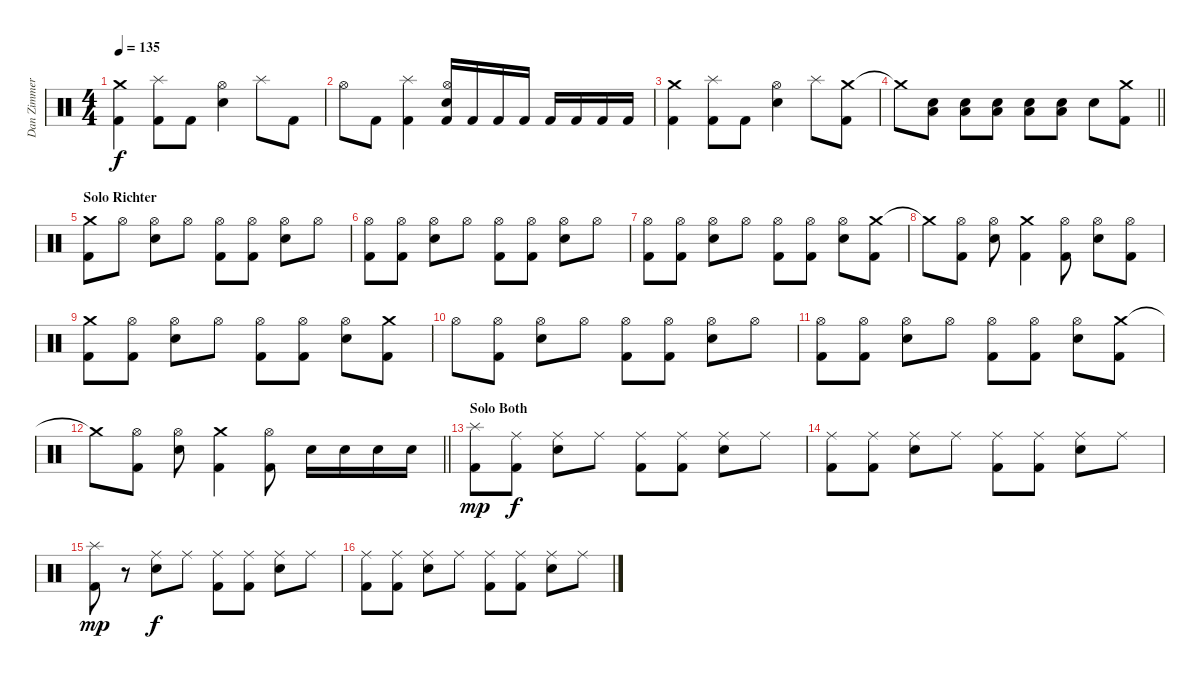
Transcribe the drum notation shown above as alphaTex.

\track ("Dan Zimmermann" "Dan Zimmer") {instrument percussion}
\staff {score}
\articulation defaults
\ts (4 4)
\tempo 135
\clef neutral
\ks c
("Crash medium (hit)" "Kick (hit) 2").4{dy f} ("Splash (hit)" "Kick (hit) 2").8 "Kick (hit) 2".8 ("Hi-Hat (open)" "Electric Snare (hit)").4 "Splash (hit)".8 "Kick (hit) 2".8 |
"Hi-Hat (open)".8 "Kick (hit) 2".8 ("Splash (hit)" "Kick (hit) 2").4 ("Hi-Hat (open)" "Electric Snare (hit)" "Kick (hit) 2").16 "Kick (hit) 2".16 "Kick (hit) 2".16 "Kick (hit) 2".16 "Kick (hit) 2".16 "Kick (hit) 2".16 "Kick (hit) 2".16 "Kick (hit) 2".16 |
("Crash medium (hit)" "Kick (hit) 2").4 ("Splash (hit)" "Kick (hit) 2").8 "Kick (hit) 2".8 ("Hi-Hat (open)" "Electric Snare (hit)").4 "Splash (hit)".8 ("Crash medium (hit)" "Kick (hit) 2").8 |
\barLineRight lightlight "Crash medium (hit)"{t}.8
("Electric Snare (hit)" "Low Floor Tom (hit)").8 ("Electric Snare (hit)" "Low Floor Tom (hit)").8 ("Electric Snare (hit)" "Low Floor Tom (hit)").8 ("Electric Snare (hit)" "Low Floor Tom (hit)").8 ("Electric Snare (hit)" "Low Floor Tom (hit)").8 "Electric Snare (hit)".8 ("Crash medium (hit)" "Kick (hit) 2").8 |
\section ("" "Solo Richter")
("Crash medium (hit)" "Kick (hit) 2").8 "Hi-Hat (open)".8 ("Hi-Hat (open)" "Electric Snare (hit)").8 "Hi-Hat (open)".8 ("Hi-Hat (open)" "Kick (hit) 2").8 ("Hi-Hat (open)" "Kick (hit) 2").8 ("Hi-Hat (open)" "Electric Snare (hit)").8 "Hi-Hat (open)".8 |
("Hi-Hat (open)" "Kick (hit) 2").8 ("Hi-Hat (open)" "Kick (hit) 2").8 ("Hi-Hat (open)" "Electric Snare (hit)").8 "Hi-Hat (open)".8 ("Hi-Hat (open)" "Kick (hit) 2").8 ("Hi-Hat (open)" "Kick (hit) 2").8 ("Hi-Hat (open)" "Electric Snare (hit)").8 "Hi-Hat (open)".8 |
("Hi-Hat (open)" "Kick (hit) 2").8 ("Hi-Hat (open)" "Kick (hit) 2").8 ("Hi-Hat (open)" "Electric Snare (hit)").8 "Hi-Hat (open)".8 ("Hi-Hat (open)" "Kick (hit) 2").8 ("Hi-Hat (open)" "Kick (hit) 2").8 ("Hi-Hat (open)" "Electric Snare (hit)").8 ("Crash medium (hit)" "Kick (hit) 2").8 |
"Crash medium (hit)"{t}.8 ("Hi-Hat (open)" "Kick (hit) 2").8 ("Hi-Hat (open)" "Electric Snare (hit)").8 ("Crash medium (hit)" "Kick (hit) 2").4 ("Hi-Hat (open)" "Kick (hit) 2").8 ("Hi-Hat (open)" "Electric Snare (hit)").8 ("Hi-Hat (open)" "Kick (hit) 2").8 |
("Crash medium (hit)" "Kick (hit) 2").8 ("Hi-Hat (open)" "Kick (hit) 2").8 ("Hi-Hat (open)" "Electric Snare (hit)").8 "Hi-Hat (open)".8 ("Hi-Hat (open)" "Kick (hit) 2").8 ("Hi-Hat (open)" "Kick (hit) 2").8 ("Hi-Hat (open)" "Electric Snare (hit)").8 ("Crash medium (hit)" "Kick (hit) 2").8 |
"Hi-Hat (open)".8 ("Hi-Hat (open)" "Kick (hit) 2").8 ("Hi-Hat (open)" "Electric Snare (hit)").8 "Hi-Hat (open)".8 ("Hi-Hat (open)" "Kick (hit) 2").8 ("Hi-Hat (open)" "Kick (hit) 2").8 ("Hi-Hat (open)" "Electric Snare (hit)").8 "Hi-Hat (open)".8 |
("Hi-Hat (open)" "Kick (hit) 2").8 ("Hi-Hat (open)" "Kick (hit) 2").8 ("Hi-Hat (open)" "Electric Snare (hit)").8 "Hi-Hat (open)".8 ("Hi-Hat (open)" "Kick (hit) 2").8 ("Hi-Hat (open)" "Kick (hit) 2").8 ("Hi-Hat (open)" "Electric Snare (hit)").8 ("Crash medium (hit)" "Kick (hit) 2").8 |
\barLineRight lightlight "Crash medium (hit)"{t}.8
("Hi-Hat (open)" "Kick (hit) 2").8 ("Hi-Hat (open)" "Electric Snare (hit)").8 ("Crash medium (hit)" "Kick (hit) 2").4 ("Hi-Hat (open)" "Kick (hit) 2").8 "Electric Snare (hit)".16 "Electric Snare (hit)".16 "Electric Snare (hit)".16 "Electric Snare (hit)".16 |
\section ("" "Solo Both")
("Splash (hit)" "Kick (hit) 2").8{dy mp} ("Ride (middle)" "Kick (hit) 2").8{dy f} ("Ride (middle)" "Electric Snare (hit)").8 "Ride (middle)".8 ("Ride (middle)" "Kick (hit) 2").8 ("Ride (middle)" "Kick (hit) 2").8 ("Ride (middle)" "Electric Snare (hit)").8 "Ride (middle)".8 |
("Ride (middle)" "Kick (hit) 2").8 ("Ride (middle)" "Kick (hit) 2").8 ("Ride (middle)" "Electric Snare (hit)").8 "Ride (middle)".8 ("Ride (middle)" "Kick (hit) 2").8 ("Ride (middle)" "Kick (hit) 2").8 ("Ride (middle)" "Electric Snare (hit)").8 "Ride (middle)".8 |
("Splash (hit)" "Kick (hit) 2").8{dy mp} r.8 ("Ride (middle)" "Electric Snare (hit)").8{dy f} "Ride (middle)".8 ("Ride (middle)" "Kick (hit) 2").8 ("Ride (middle)" "Kick (hit) 2").8 ("Ride (middle)" "Electric Snare (hit)").8 "Ride (middle)".8 |
("Ride (middle)" "Kick (hit) 2").8 ("Ride (middle)" "Kick (hit) 2").8 ("Ride (middle)" "Electric Snare (hit)").8 "Ride (middle)".8 ("Ride (middle)" "Kick (hit) 2").8 ("Ride (middle)" "Kick (hit) 2").8 ("Ride (middle)" "Electric Snare (hit)").8 "Ride (middle)".8
